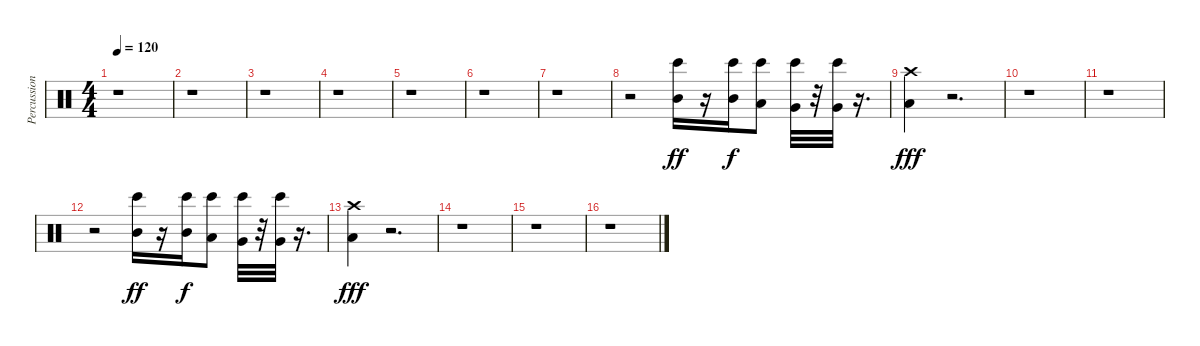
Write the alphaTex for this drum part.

\track ("Percussions" "Percussion") {instrument percussion}
\staff {score}
\articulation defaults
\ts (4 4)
\tempo 120
\clef neutral
\ks c
r.1{dy f} |
r.1 |
r.1 |
r.1 |
r.1 |
r.1 |
r.1 |
r.2 ("Bongo High (hit)" "Mid Tom (hit)").16{dy ff} r.16 ("Bongo High (hit)" "Mid Tom (hit)").16{dy f} ("Bongo High (hit)" "Low Tom (hit)").8 ("Bongo High (hit)" "Very Low Tom (hit)").32 r.32 ("Bongo High (hit)" "Very Low Tom (hit)").32 r.16{d} |
("Low Floor Tom (hit)" "Crash high (hit)").4{dy fff} r.2{d} |
r.1 |
r.1 |
r.2 ("Bongo High (hit)" "Mid Tom (hit)").16{dy ff} r.16 ("Bongo High (hit)" "Mid Tom (hit)").16{dy f} ("Bongo High (hit)" "Low Tom (hit)").8 ("Bongo High (hit)" "Very Low Tom (hit)").32 r.32 ("Bongo High (hit)" "Very Low Tom (hit)").32 r.16{d} |
("Low Floor Tom (hit)" "Crash high (hit)").4{dy fff} r.2{d} |
r.1 |
r.1 |
r.1
